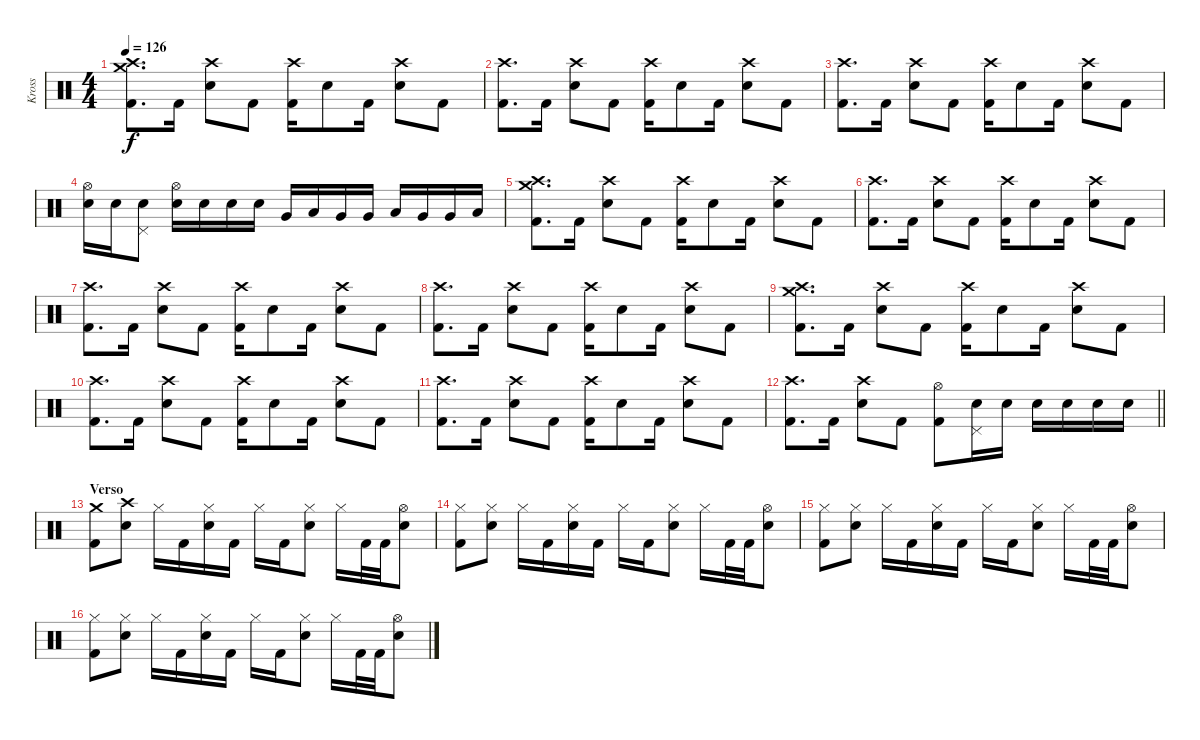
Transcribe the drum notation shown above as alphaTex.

\track ("Kross" "Kross") {instrument percussion}
\staff {score}
\articulation defaults
\ts (4 4)
\tempo 126
\clef neutral
\ks c
("Crash high (hit)" "Crash medium (hit)" "Kick (hit) 2").8{d dy f} "Kick (hit) 2".16 ("Crash high (hit)" "Electric Snare (hit)").8 "Kick (hit) 2".8 ("Crash high (hit)" "Kick (hit) 2").16 "Electric Snare (hit)".8 "Kick (hit) 2".16 ("Crash high (hit)" "Electric Snare (hit)").8 "Kick (hit) 2".8 |
("Crash high (hit)" "Kick (hit) 2").8{d} "Kick (hit) 2".16 ("Crash high (hit)" "Electric Snare (hit)").8 "Kick (hit) 2".8 ("Crash high (hit)" "Kick (hit) 2").16 "Electric Snare (hit)".8 "Kick (hit) 2".16 ("Crash high (hit)" "Electric Snare (hit)").8 "Kick (hit) 2".8 |
("Crash high (hit)" "Kick (hit) 2").8{d} "Kick (hit) 2".16 ("Crash high (hit)" "Electric Snare (hit)").8 "Kick (hit) 2".8 ("Crash high (hit)" "Kick (hit) 2").16 "Electric Snare (hit)".8 "Kick (hit) 2".16 ("Crash high (hit)" "Electric Snare (hit)").8 "Kick (hit) 2".8 |
("Hi-Hat (open)" "Electric Snare (hit)").16 "Electric Snare (hit)".16 ("Pedal Hi-Hat (hit)" "Electric Snare (hit)").8 ("Hi-Hat (open)" "Electric Snare (hit)").16 "Electric Snare (hit)".16 "Electric Snare (hit)".16 "Electric Snare (hit)".16 "Very Low Tom (hit)".16 "Low Tom (hit)".16 "Very Low Tom (hit)".16 "Very Low Tom (hit)".16 "Low Tom (hit)".16 "Very Low Tom (hit)".16 "Very Low Tom (hit)".16 "Low Tom (hit)".16 |
("Crash high (hit)" "Crash medium (hit)" "Kick (hit) 2").8{d} "Kick (hit) 2".16 ("Crash high (hit)" "Electric Snare (hit)").8 "Kick (hit) 2".8 ("Crash high (hit)" "Kick (hit) 2").16 "Electric Snare (hit)".8 "Kick (hit) 2".16 ("Crash high (hit)" "Electric Snare (hit)").8 "Kick (hit) 2".8 |
("Crash high (hit)" "Kick (hit) 2").8{d} "Kick (hit) 2".16 ("Crash high (hit)" "Electric Snare (hit)").8 "Kick (hit) 2".8 ("Crash high (hit)" "Kick (hit) 2").16 "Electric Snare (hit)".8 "Kick (hit) 2".16 ("Crash high (hit)" "Electric Snare (hit)").8 "Kick (hit) 2".8 |
("Crash high (hit)" "Kick (hit) 2").8{d} "Kick (hit) 2".16 ("Crash high (hit)" "Electric Snare (hit)").8 "Kick (hit) 2".8 ("Crash high (hit)" "Kick (hit) 2").16 "Electric Snare (hit)".8 "Kick (hit) 2".16 ("Crash high (hit)" "Electric Snare (hit)").8 "Kick (hit) 2".8 |
("Crash high (hit)" "Kick (hit) 2").8{d} "Kick (hit) 2".16 ("Crash high (hit)" "Electric Snare (hit)").8 "Kick (hit) 2".8 ("Crash high (hit)" "Kick (hit) 2").16 "Electric Snare (hit)".8 "Kick (hit) 2".16 ("Crash high (hit)" "Electric Snare (hit)").8 "Kick (hit) 2".8 |
("Crash high (hit)" "Crash medium (hit)" "Kick (hit) 2").8{d} "Kick (hit) 2".16 ("Crash high (hit)" "Electric Snare (hit)").8 "Kick (hit) 2".8 ("Crash high (hit)" "Kick (hit) 2").16 "Electric Snare (hit)".8 "Kick (hit) 2".16 ("Crash high (hit)" "Electric Snare (hit)").8 "Kick (hit) 2".8 |
("Crash high (hit)" "Kick (hit) 2").8{d} "Kick (hit) 2".16 ("Crash high (hit)" "Electric Snare (hit)").8 "Kick (hit) 2".8 ("Crash high (hit)" "Kick (hit) 2").16 "Electric Snare (hit)".8 "Kick (hit) 2".16 ("Crash high (hit)" "Electric Snare (hit)").8 "Kick (hit) 2".8 |
("Crash high (hit)" "Kick (hit) 2").8{d} "Kick (hit) 2".16 ("Crash high (hit)" "Electric Snare (hit)").8 "Kick (hit) 2".8 ("Crash high (hit)" "Kick (hit) 2").16 "Electric Snare (hit)".8 "Kick (hit) 2".16 ("Crash high (hit)" "Electric Snare (hit)").8 "Kick (hit) 2".8 |
\barLineRight lightlight
("Crash high (hit)" "Kick (hit) 2").8{d} "Kick (hit) 2".16 ("Crash high (hit)" "Electric Snare (hit)").8 "Kick (hit) 2".8 ("Hi-Hat (open)" "Kick (hit) 2").8 ("Pedal Hi-Hat (hit)" "Electric Snare (hit)").16 "Electric Snare (hit)".16 "Electric Snare (hit)".16 "Electric Snare (hit)".16 "Electric Snare (hit)".16 "Electric Snare (hit)".16 |
\section ("" "Verso")
("Crash medium (hit)" "Kick (hit) 2").8 ("Crash high (hit)" "Electric Snare (hit)").8 "Hi-Hat (closed)".16 "Kick (hit) 2".16 ("Hi-Hat (closed)" "Electric Snare (hit)").16 "Kick (hit) 2".16 "Hi-Hat (closed)".16 "Kick (hit) 2".16 ("Hi-Hat (closed)" "Electric Snare (hit)").8 "Hi-Hat (closed)".16 "Kick (hit) 2".32 "Kick (hit) 2".32 ("Hi-Hat (open)" "Electric Snare (hit)").8 |
("Hi-Hat (closed)" "Kick (hit) 2").8 ("Hi-Hat (closed)" "Electric Snare (hit)").8 "Hi-Hat (closed)".16 "Kick (hit) 2".16 ("Hi-Hat (closed)" "Electric Snare (hit)").16 "Kick (hit) 2".16 "Hi-Hat (closed)".16 "Kick (hit) 2".16 ("Hi-Hat (closed)" "Electric Snare (hit)").8 "Hi-Hat (closed)".16 "Kick (hit) 2".32 "Kick (hit) 2".32 ("Hi-Hat (open)" "Electric Snare (hit)").8 |
("Hi-Hat (closed)" "Kick (hit) 2").8 ("Hi-Hat (closed)" "Electric Snare (hit)").8 "Hi-Hat (closed)".16 "Kick (hit) 2".16 ("Hi-Hat (closed)" "Electric Snare (hit)").16 "Kick (hit) 2".16 "Hi-Hat (closed)".16 "Kick (hit) 2".16 ("Hi-Hat (closed)" "Electric Snare (hit)").8 "Hi-Hat (closed)".16 "Kick (hit) 2".32 "Kick (hit) 2".32 ("Hi-Hat (open)" "Electric Snare (hit)").8 |
("Hi-Hat (closed)" "Kick (hit) 2").8 ("Hi-Hat (closed)" "Electric Snare (hit)").8 "Hi-Hat (closed)".16 "Kick (hit) 2".16 ("Hi-Hat (closed)" "Electric Snare (hit)").16 "Kick (hit) 2".16 "Hi-Hat (closed)".16 "Kick (hit) 2".16 ("Hi-Hat (closed)" "Electric Snare (hit)").8 "Hi-Hat (closed)".16 "Kick (hit) 2".32 "Kick (hit) 2".32 ("Hi-Hat (open)" "Electric Snare (hit)").8
